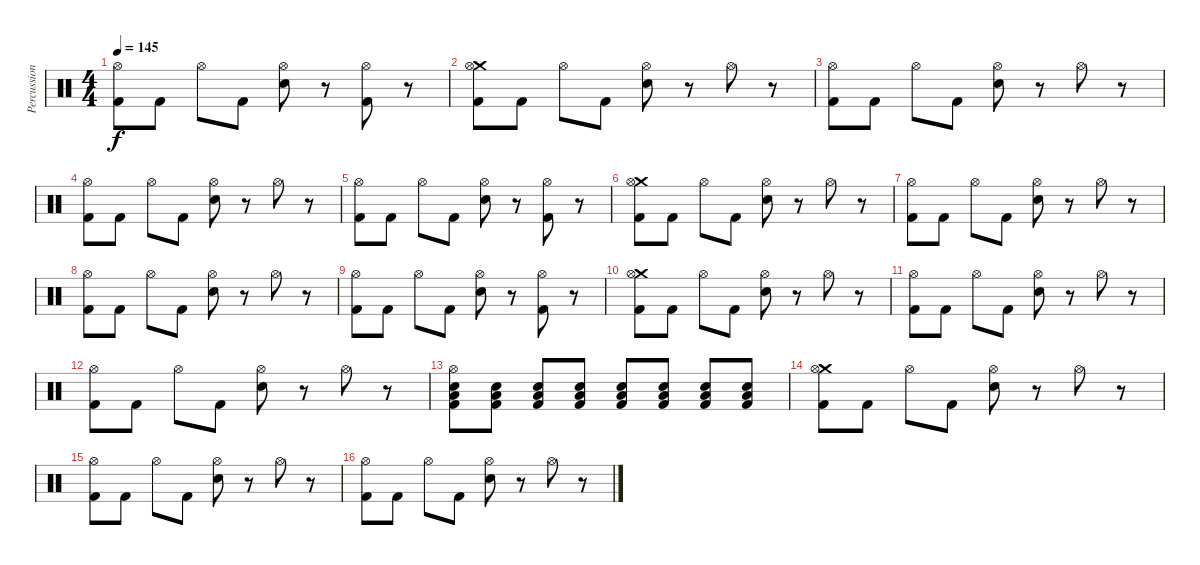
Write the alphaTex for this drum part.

\track ("Percussioni" "Percussion") {instrument percussion}
\staff {score}
\articulation defaults
\ts (4 4)
\tempo 145
\clef neutral
\ks c
("Hi-Hat (open)" "Kick (hit) 2").8{dy f} "Kick (hit) 2".8 "Hi-Hat (open)".8 "Kick (hit) 2".8 ("Hi-Hat (open)" "Snare (hit) 2").8 r.8 ("Hi-Hat (open)" "Kick (hit) 2").8 r.8 |
("Crash medium (hit)" "Hi-Hat (open)" "Kick (hit) 2").8 "Kick (hit) 2".8 "Hi-Hat (open)".8 "Kick (hit) 2".8 ("Hi-Hat (open)" "Snare (hit) 2").8 r.8 "Hi-Hat (open)".8 r.8 |
("Hi-Hat (open)" "Kick (hit) 2").8 "Kick (hit) 2".8 "Hi-Hat (open)".8 "Kick (hit) 2".8 ("Hi-Hat (open)" "Snare (hit) 2").8 r.8 "Hi-Hat (open)".8 r.8 |
("Hi-Hat (open)" "Kick (hit) 2").8 "Kick (hit) 2".8 "Hi-Hat (open)".8 "Kick (hit) 2".8 ("Hi-Hat (open)" "Snare (hit) 2").8 r.8 "Hi-Hat (open)".8 r.8 |
("Hi-Hat (open)" "Kick (hit) 2").8 "Kick (hit) 2".8 "Hi-Hat (open)".8 "Kick (hit) 2".8 ("Hi-Hat (open)" "Snare (hit) 2").8 r.8 ("Hi-Hat (open)" "Kick (hit) 2").8 r.8 |
("Crash medium (hit)" "Hi-Hat (open)" "Kick (hit) 2").8 "Kick (hit) 2".8 "Hi-Hat (open)".8 "Kick (hit) 2".8 ("Hi-Hat (open)" "Snare (hit) 2").8 r.8 "Hi-Hat (open)".8 r.8 |
("Hi-Hat (open)" "Kick (hit) 2").8 "Kick (hit) 2".8 "Hi-Hat (open)".8 "Kick (hit) 2".8 ("Hi-Hat (open)" "Snare (hit) 2").8 r.8 "Hi-Hat (open)".8 r.8 |
("Hi-Hat (open)" "Kick (hit) 2").8 "Kick (hit) 2".8 "Hi-Hat (open)".8 "Kick (hit) 2".8 ("Hi-Hat (open)" "Snare (hit) 2").8 r.8 "Hi-Hat (open)".8 r.8 |
("Hi-Hat (open)" "Kick (hit) 2").8 "Kick (hit) 2".8 "Hi-Hat (open)".8 "Kick (hit) 2".8 ("Hi-Hat (open)" "Snare (hit) 2").8 r.8 ("Hi-Hat (open)" "Kick (hit) 2").8 r.8 |
("Crash medium (hit)" "Hi-Hat (open)" "Kick (hit) 2").8 "Kick (hit) 2".8 "Hi-Hat (open)".8 "Kick (hit) 2".8 ("Hi-Hat (open)" "Snare (hit) 2").8 r.8 "Hi-Hat (open)".8 r.8 |
("Hi-Hat (open)" "Kick (hit) 2").8 "Kick (hit) 2".8 "Hi-Hat (open)".8 "Kick (hit) 2".8 ("Hi-Hat (open)" "Snare (hit) 2").8 r.8 "Hi-Hat (open)".8 r.8 |
("Hi-Hat (open)" "Kick (hit) 2").8 "Kick (hit) 2".8 "Hi-Hat (open)".8 "Kick (hit) 2".8 ("Hi-Hat (open)" "Snare (hit) 2").8 r.8 "Hi-Hat (open)".8 r.8 |
("Hi-Hat (open)" "Snare (hit) 2" "Low Floor Tom (hit)" "Kick (hit) 2").8 ("Snare (hit) 2" "Low Floor Tom (hit)" "Kick (hit) 2").8 ("Snare (hit) 2" "Low Floor Tom (hit)" "Kick (hit) 2").8 ("Snare (hit) 2" "Low Floor Tom (hit)" "Kick (hit) 2").8 ("Snare (hit) 2" "Low Floor Tom (hit)" "Kick (hit) 2").8 ("Snare (hit) 2" "Low Floor Tom (hit)" "Kick (hit) 2").8 ("Snare (hit) 2" "Low Floor Tom (hit)" "Kick (hit) 2").8 ("Snare (hit) 2" "Low Floor Tom (hit)" "Kick (hit) 2").8 |
("Crash medium (hit)" "Hi-Hat (open)" "Kick (hit) 2").8 "Kick (hit) 2".8 "Hi-Hat (open)".8 "Kick (hit) 2".8 ("Hi-Hat (open)" "Snare (hit) 2").8 r.8 "Hi-Hat (open)".8 r.8 |
("Hi-Hat (open)" "Kick (hit) 2").8 "Kick (hit) 2".8 "Hi-Hat (open)".8 "Kick (hit) 2".8 ("Hi-Hat (open)" "Snare (hit) 2").8 r.8 "Hi-Hat (open)".8 r.8 |
("Hi-Hat (open)" "Kick (hit) 2").8 "Kick (hit) 2".8 "Hi-Hat (open)".8 "Kick (hit) 2".8 ("Hi-Hat (open)" "Snare (hit) 2").8 r.8 "Hi-Hat (open)".8 r.8
